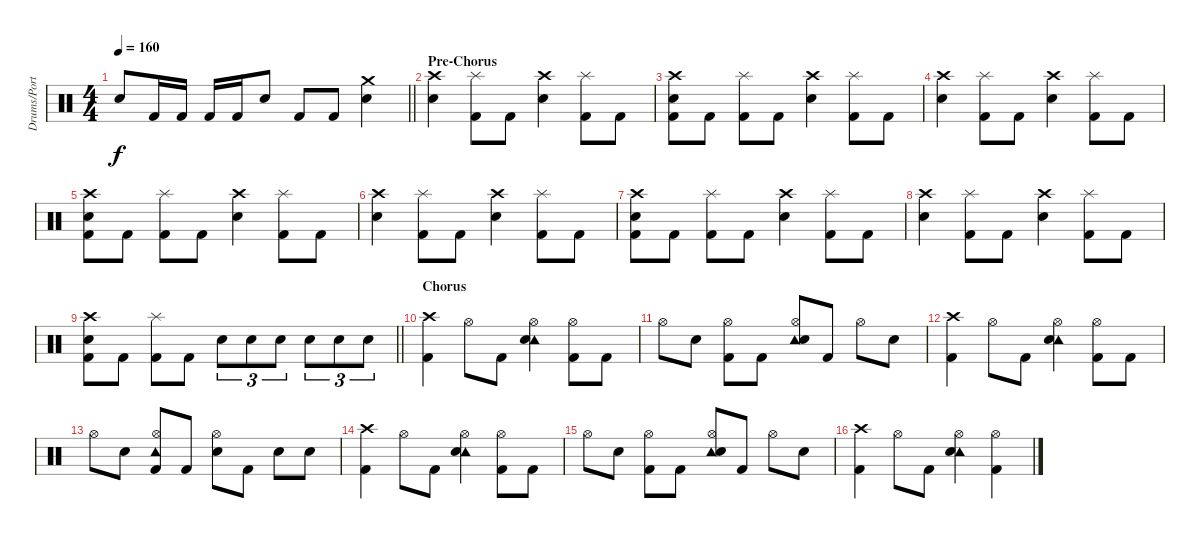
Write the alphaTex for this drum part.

\track ("Drums/Portnoy" "Drums/Port") {instrument percussion}
\staff {score}
\articulation defaults
\ts (4 4)
\tempo 160
\clef neutral
\barLineRight lightlight
\ks c "Electric Snare (hit)".8{dy f} "Kick (hit) 2".16 "Kick (hit) 2".16 "Kick (hit) 2".16 "Kick (hit) 2".16 "Electric Snare (hit)".8 "Kick (hit) 2".8 "Kick (hit) 2".8
("Crash medium (hit)" "Electric Snare (hit)").4 |
\section ("" "Pre-Chorus")
("Crash high (hit)" "Electric Snare (hit)").4 ("Splash (hit)" "Kick (hit) 2").8 "Kick (hit) 2".8 ("Crash high (hit)" "Electric Snare (hit)").4 ("Splash (hit)" "Kick (hit) 2").8 "Kick (hit) 2".8 |
("Crash high (hit)" "Electric Snare (hit)" "Kick (hit) 2").8 "Kick (hit) 2".8 ("Splash (hit)" "Kick (hit) 2").8 "Kick (hit) 2".8 ("Crash high (hit)" "Electric Snare (hit)").4 ("Splash (hit)" "Kick (hit) 2").8 "Kick (hit) 2".8 |
("Crash high (hit)" "Electric Snare (hit)").4 ("Splash (hit)" "Kick (hit) 2").8 "Kick (hit) 2".8 ("Crash high (hit)" "Electric Snare (hit)").4 ("Splash (hit)" "Kick (hit) 2").8 "Kick (hit) 2".8 |
("Crash high (hit)" "Electric Snare (hit)" "Kick (hit) 2").8 "Kick (hit) 2".8 ("Splash (hit)" "Kick (hit) 2").8 "Kick (hit) 2".8 ("Crash high (hit)" "Electric Snare (hit)").4 ("Splash (hit)" "Kick (hit) 2").8 "Kick (hit) 2".8 |
("Crash high (hit)" "Electric Snare (hit)").4 ("Splash (hit)" "Kick (hit) 2").8 "Kick (hit) 2".8 ("Crash high (hit)" "Electric Snare (hit)").4 ("Splash (hit)" "Kick (hit) 2").8 "Kick (hit) 2".8 |
("Crash high (hit)" "Electric Snare (hit)" "Kick (hit) 2").8 "Kick (hit) 2".8 ("Splash (hit)" "Kick (hit) 2").8 "Kick (hit) 2".8 ("Crash high (hit)" "Electric Snare (hit)").4 ("Splash (hit)" "Kick (hit) 2").8 "Kick (hit) 2".8 |
("Crash high (hit)" "Electric Snare (hit)").4 ("Splash (hit)" "Kick (hit) 2").8 "Kick (hit) 2".8 ("Crash high (hit)" "Electric Snare (hit)").4 ("Splash (hit)" "Kick (hit) 2").8 "Kick (hit) 2".8 |
\barLineRight lightlight
("Crash high (hit)" "Electric Snare (hit)" "Kick (hit) 2").8 "Kick (hit) 2".8 ("Splash (hit)" "Kick (hit) 2").8 "Kick (hit) 2".8 "Electric Snare (hit)".8{tu (3 2)} "Electric Snare (hit)".8{tu (3 2)} "Electric Snare (hit)".8{tu (3 2)} "Electric Snare (hit)".8{tu (3 2)} "Electric Snare (hit)".8{tu (3 2)} "Electric Snare (hit)".8{tu (3 2)} |
\section ("" "Chorus")
("Crash high (hit)" "Kick (hit) 2").4 "Hi-Hat (open)".8 "Kick (hit) 2".8 ("Tambourine (hit)" "Hi-Hat (open)" "Electric Snare (hit)").4 ("Hi-Hat (open)" "Kick (hit) 2").8 "Kick (hit) 2".8 |
"Hi-Hat (open)".8 "Electric Snare (hit)".8 ("Hi-Hat (open)" "Kick (hit) 2").8 "Kick (hit) 2".8 ("Tambourine (hit)" "Hi-Hat (open)" "Electric Snare (hit)").8 "Kick (hit) 2".8 "Hi-Hat (open)".8 "Electric Snare (hit)".8 |
("Crash high (hit)" "Kick (hit) 2").4 "Hi-Hat (open)".8 "Kick (hit) 2".8 ("Tambourine (hit)" "Hi-Hat (open)" "Electric Snare (hit)").4 ("Hi-Hat (open)" "Kick (hit) 2").8 "Kick (hit) 2".8 |
"Hi-Hat (open)".8 "Electric Snare (hit)".8 ("Tambourine (hit)" "Hi-Hat (open)" "Kick (hit) 2").8 "Kick (hit) 2".8 ("Hi-Hat (open)" "Electric Snare (hit)").8 "Kick (hit) 2".8 "Electric Snare (hit)".8 "Electric Snare (hit)".8 |
("Crash high (hit)" "Kick (hit) 2").4 "Hi-Hat (open)".8 "Kick (hit) 2".8 ("Tambourine (hit)" "Hi-Hat (open)" "Electric Snare (hit)").4 ("Hi-Hat (open)" "Kick (hit) 2").8 "Kick (hit) 2".8 |
"Hi-Hat (open)".8 "Electric Snare (hit)".8 ("Hi-Hat (open)" "Kick (hit) 2").8 "Kick (hit) 2".8 ("Tambourine (hit)" "Hi-Hat (open)" "Electric Snare (hit)").8 "Kick (hit) 2".8 "Hi-Hat (open)".8 "Electric Snare (hit)".8 |
("Crash high (hit)" "Kick (hit) 2").4 "Hi-Hat (open)".8 "Kick (hit) 2".8 ("Tambourine (hit)" "Hi-Hat (open)" "Electric Snare (hit)").4 ("Hi-Hat (open)" "Kick (hit) 2").4
